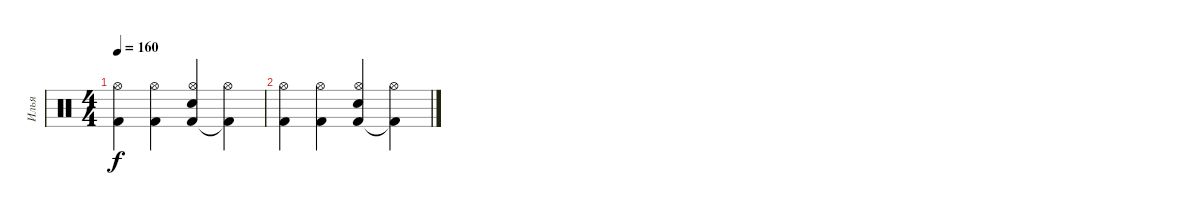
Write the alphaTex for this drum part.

\track ("Илья" "Илья") {instrument percussion}
\staff {score}
\articulation defaults
\ts (4 4)
\tempo 160
\clef neutral
\ks c
("Kick (hit) 2" "Hi-Hat (open)").4{dy f} ("Kick (hit) 2" "Hi-Hat (open)").4 ("Kick (hit) 2" "Electric Snare (hit)" "Hi-Hat (open)").4 ("Kick (hit) 2"{t} "Hi-Hat (open)").4 |
("Kick (hit) 2" "Hi-Hat (open)").4 ("Kick (hit) 2" "Hi-Hat (open)").4 ("Kick (hit) 2" "Electric Snare (hit)" "Hi-Hat (open)").4 ("Kick (hit) 2"{t} "Hi-Hat (open)").4
